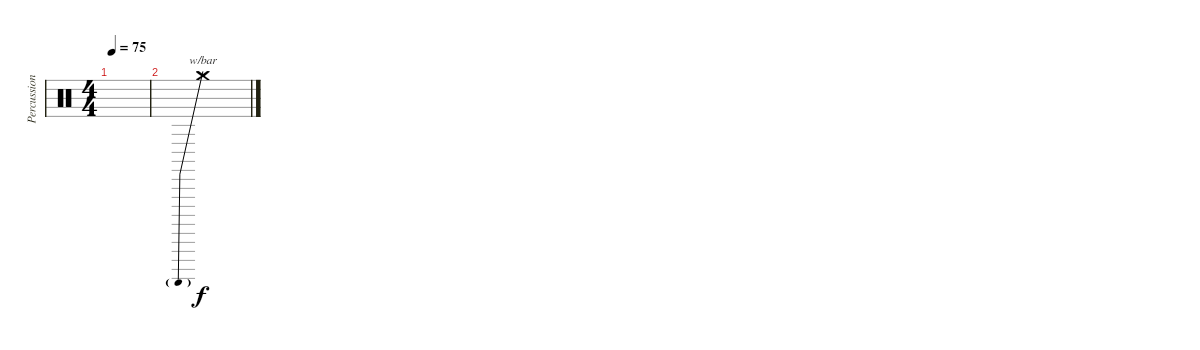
\track ("Percussion" "Percussion") {instrument percussion}
\staff {score}
\articulation defaults
\ts (4 4)
\tempo 75
\clef neutral
\ks c
|
"Crash medium (hit)".1{tbe (predive default 0 -24 60 -24)}
